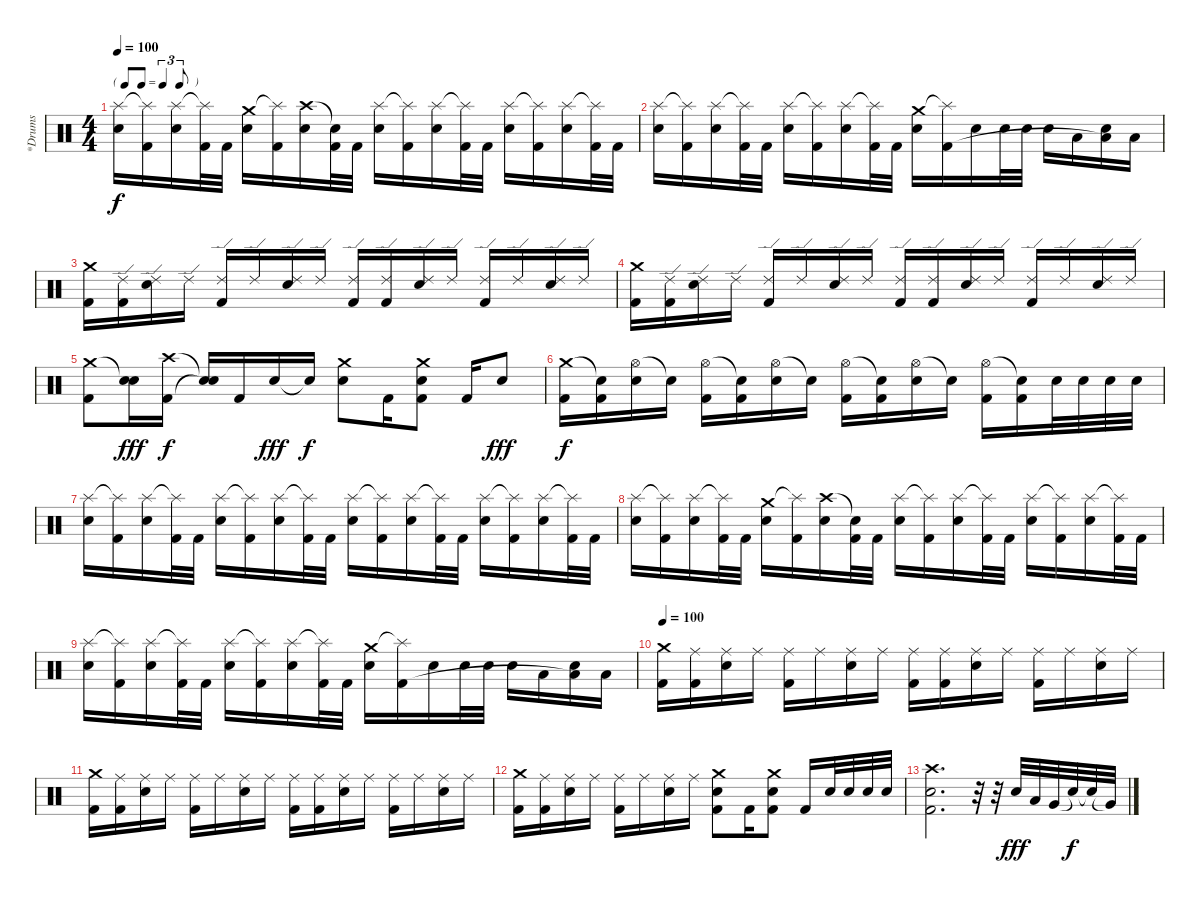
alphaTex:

\track ("*Drums" "*Drums") {instrument percussion}
\staff {score}
\articulation defaults
\ts (4 4)
\tf triplet8th
\tempo 100
\clef neutral
\ks c
("Splash (hit)" "Electric Snare (hit)").16{dy f} ("Splash (hit)"{t} "Kick (hit) 2").16 ("Splash (hit)" "Electric Snare (hit)").16 ("Splash (hit)"{t} "Kick (hit) 2").32 "Kick (hit) 2".32 ("Crash medium (hit)" "Electric Snare (hit)").16 ("Splash (hit)"{t} "Kick (hit) 2").16 ("Crash high (hit)" "Electric Snare (hit)").16 ("Snare (hit)"{t} "Kick (hit) 2").32 "Kick (hit) 2".32 ("Splash (hit)" "Electric Snare (hit)").16 ("Splash (hit)"{t} "Kick (hit) 2").16 ("Splash (hit)" "Electric Snare (hit)").16 ("Splash (hit)"{t} "Kick (hit) 2").32 "Kick (hit) 2".32 ("Splash (hit)" "Electric Snare (hit)").16 ("Splash (hit)"{t} "Kick (hit) 2").16 ("Splash (hit)" "Electric Snare (hit)").16 ("Splash (hit)"{t} "Kick (hit) 2").32 "Kick (hit) 2".32 |
("Splash (hit)" "Electric Snare (hit)").16 ("Splash (hit)"{t} "Kick (hit) 2").16 ("Splash (hit)" "Electric Snare (hit)").16 ("Splash (hit)"{t} "Kick (hit) 2").32 "Kick (hit) 2".32 ("Splash (hit)" "Electric Snare (hit)").16 ("Splash (hit)"{t} "Kick (hit) 2").16 ("Splash (hit)" "Electric Snare (hit)").16 ("Splash (hit)"{t} "Kick (hit) 2").32 "Kick (hit) 2".32 ("Crash medium (hit)" "Electric Snare (hit)").16 ("Splash (hit)"{t} "Kick (hit) 2").16 "Electric Snare (hit)".16 "Electric Snare (hit)".32 "Electric Snare (hit)".32 "Electric Snare (hit)".16 "Low Tom (hit)".16 ("Electric Snare (hit)" "Low Tom (hit)"{t}).16 "Low Tom (hit)".16 |
("Crash medium (hit)" "Kick (hit) 2").16 ("Ride (edge) 2" "Kick (hit) 2").16 ("Ride (edge) 2" "Electric Snare (hit)").16 "Ride (edge) 2".16 ("Ride (edge) 2" "Kick (hit) 2").16 "Ride (edge) 2".16 ("Ride (edge) 2" "Electric Snare (hit)").16 "Ride (edge) 2".16 ("Ride (edge) 2" "Kick (hit) 2").16 ("Ride (edge) 2" "Kick (hit) 2").16 ("Ride (edge) 2" "Electric Snare (hit)").16 "Ride (edge) 2".16 ("Ride (edge) 2" "Kick (hit) 2").16 "Ride (edge) 2".16 ("Ride (edge) 2" "Electric Snare (hit)").16 "Ride (edge) 2".16 |
("Crash medium (hit)" "Kick (hit) 2").16 ("Ride (edge) 2" "Kick (hit) 2").16 ("Ride (edge) 2" "Electric Snare (hit)").16 "Ride (edge) 2".16 ("Ride (edge) 2" "Kick (hit) 2").16 "Ride (edge) 2".16 ("Ride (edge) 2" "Electric Snare (hit)").16 "Ride (edge) 2".16 ("Ride (edge) 2" "Kick (hit) 2").16 ("Ride (edge) 2" "Kick (hit) 2").16 ("Ride (edge) 2" "Electric Snare (hit)").16 "Ride (edge) 2".16 ("Ride (edge) 2" "Kick (hit) 2").16 "Ride (edge) 2".16 ("Ride (edge) 2" "Electric Snare (hit)").16 "Ride (edge) 2".16 |
("Crash medium (hit)" "Kick (hit) 2").8 ("Snare (hit)"{t} "Electric Snare (hit)").16{dy fff} ("Crash high (hit)" "Kick (hit) 2").16{dy f} ("Snare (hit)"{t} "Snare (hit)"{t}).16 "Kick (hit) 2".16 "Electric Snare (hit)".16{dy fff} "Snare (hit)"{t}.16{dy f} ("Crash medium (hit)" "Electric Snare (hit)").8 "Kick (hit) 2".16 ("Crash medium (hit)" "Electric Snare (hit)" "Kick (hit) 2").8 "Kick (hit) 2".16 "Electric Snare (hit)".8{dy fff} |
("Crash medium (hit)" "Kick (hit) 2").16{dy f} ("Snare (hit)"{t} "Kick (hit) 2").16 ("Hi-Hat (open)" "Electric Snare (hit)").16 "Snare (hit)"{t}.16 ("Hi-Hat (open)" "Kick (hit) 2").16 ("Snare (hit)"{t} "Kick (hit) 2").16 ("Hi-Hat (open)" "Electric Snare (hit)").16 "Snare (hit)"{t}.16 ("Hi-Hat (open)" "Kick (hit) 2").16 ("Snare (hit)"{t} "Kick (hit) 2").16 ("Hi-Hat (open)" "Electric Snare (hit)").16 "Snare (hit)"{t}.16 ("Hi-Hat (open)" "Kick (hit) 2").16 ("Snare (hit)"{t} "Kick (hit) 2").16 "Electric Snare (hit)".32 "Electric Snare (hit)".32 "Electric Snare (hit)".32 "Electric Snare (hit)".32 |
("Splash (hit)" "Electric Snare (hit)").16 ("Splash (hit)"{t} "Kick (hit) 2").16 ("Splash (hit)" "Electric Snare (hit)").16 ("Splash (hit)"{t} "Kick (hit) 2").32 "Kick (hit) 2".32 ("Splash (hit)" "Electric Snare (hit)").16 ("Splash (hit)"{t} "Kick (hit) 2").16 ("Splash (hit)" "Electric Snare (hit)").16 ("Splash (hit)"{t} "Kick (hit) 2").32 "Kick (hit) 2".32 ("Splash (hit)" "Electric Snare (hit)").16 ("Splash (hit)"{t} "Kick (hit) 2").16 ("Splash (hit)" "Electric Snare (hit)").16 ("Splash (hit)"{t} "Kick (hit) 2").32 "Kick (hit) 2".32 ("Splash (hit)" "Electric Snare (hit)").16 ("Splash (hit)"{t} "Kick (hit) 2").16 ("Splash (hit)" "Electric Snare (hit)").16 ("Splash (hit)"{t} "Kick (hit) 2").32 "Kick (hit) 2".32 |
("Splash (hit)" "Electric Snare (hit)").16 ("Splash (hit)"{t} "Kick (hit) 2").16 ("Splash (hit)" "Electric Snare (hit)").16 ("Splash (hit)"{t} "Kick (hit) 2").32 "Kick (hit) 2".32 ("Crash medium (hit)" "Electric Snare (hit)").16 ("Splash (hit)"{t} "Kick (hit) 2").16 ("Crash high (hit)" "Electric Snare (hit)").16 ("Snare (hit)"{t} "Kick (hit) 2").32 "Kick (hit) 2".32 ("Splash (hit)" "Electric Snare (hit)").16 ("Splash (hit)"{t} "Kick (hit) 2").16 ("Splash (hit)" "Electric Snare (hit)").16 ("Splash (hit)"{t} "Kick (hit) 2").32 "Kick (hit) 2".32 ("Splash (hit)" "Electric Snare (hit)").16 ("Splash (hit)"{t} "Kick (hit) 2").16 ("Splash (hit)" "Electric Snare (hit)").16 ("Splash (hit)"{t} "Kick (hit) 2").32 "Kick (hit) 2".32 |
("Splash (hit)" "Electric Snare (hit)").16 ("Splash (hit)"{t} "Kick (hit) 2").16 ("Splash (hit)" "Electric Snare (hit)").16 ("Splash (hit)"{t} "Kick (hit) 2").32 "Kick (hit) 2".32 ("Splash (hit)" "Electric Snare (hit)").16 ("Splash (hit)"{t} "Kick (hit) 2").16 ("Splash (hit)" "Electric Snare (hit)").16 ("Splash (hit)"{t} "Kick (hit) 2").32 "Kick (hit) 2".32 ("Crash medium (hit)" "Electric Snare (hit)").16 ("Splash (hit)"{t} "Kick (hit) 2").16 "Electric Snare (hit)".16 "Electric Snare (hit)".32 "Electric Snare (hit)".32 "Electric Snare (hit)".16 "Low Tom (hit)".16 ("Electric Snare (hit)" "Low Tom (hit)"{t}).16 "Low Tom (hit)".16 |
\tempo 100
("Crash medium (hit)" "Kick (hit) 2").16 ("Ride (middle)" "Kick (hit) 2").16 ("Ride (middle)" "Electric Snare (hit)").16 "Ride (middle)".16 ("Ride (middle)" "Kick (hit) 2").16 "Ride (middle)".16 ("Ride (middle)" "Electric Snare (hit)").16 "Ride (middle)".16 ("Ride (middle)" "Kick (hit) 2").16 ("Ride (middle)" "Kick (hit) 2").16 ("Ride (middle)" "Electric Snare (hit)").16 "Ride (middle)".16 ("Ride (middle)" "Kick (hit) 2").16 "Ride (middle)".16 ("Ride (middle)" "Electric Snare (hit)").16 "Ride (middle)".16 |
("Crash medium (hit)" "Kick (hit) 2").16 ("Ride (middle)" "Kick (hit) 2").16 ("Ride (middle)" "Electric Snare (hit)").16 "Ride (middle)".16 ("Ride (middle)" "Kick (hit) 2").16 "Ride (middle)".16 ("Ride (middle)" "Electric Snare (hit)").16 "Ride (middle)".16 ("Ride (middle)" "Kick (hit) 2").16 ("Ride (middle)" "Kick (hit) 2").16 ("Ride (middle)" "Electric Snare (hit)").16 "Ride (middle)".16 ("Ride (middle)" "Kick (hit) 2").16 "Ride (middle)".16 ("Ride (middle)" "Electric Snare (hit)").16 "Ride (middle)".16 |
("Crash medium (hit)" "Kick (hit) 2").16 ("Ride (middle)" "Kick (hit) 2").16 ("Ride (middle)" "Electric Snare (hit)").16 "Ride (middle)".16 ("Ride (middle)" "Kick (hit) 2").16 "Ride (middle)".16 ("Ride (middle)" "Electric Snare (hit)").16 "Ride (middle)".16 ("Crash medium (hit)" "Electric Snare (hit)" "Kick (hit) 2").8 "Kick (hit) 2".16 ("Crash medium (hit)" "Electric Snare (hit)" "Kick (hit) 2").8 "Kick (hit) 2".16 "Electric Snare (hit)".32 "Electric Snare (hit)".32 "Electric Snare (hit)".32 "Electric Snare (hit)".32 |
("Crash high (hit)" "Electric Snare (hit)" "Kick (hit) 2").2{d} r.32 r.32 "Electric Snare (hit)".32{dy fff} "Low Tom (hit)".32 "Very Low Tom (hit)".32 "Electric Snare (hit)"{t}.32{dy f} "Snare (hit)"{t}.32 "Very Low Tom (hit)"{t}.32
